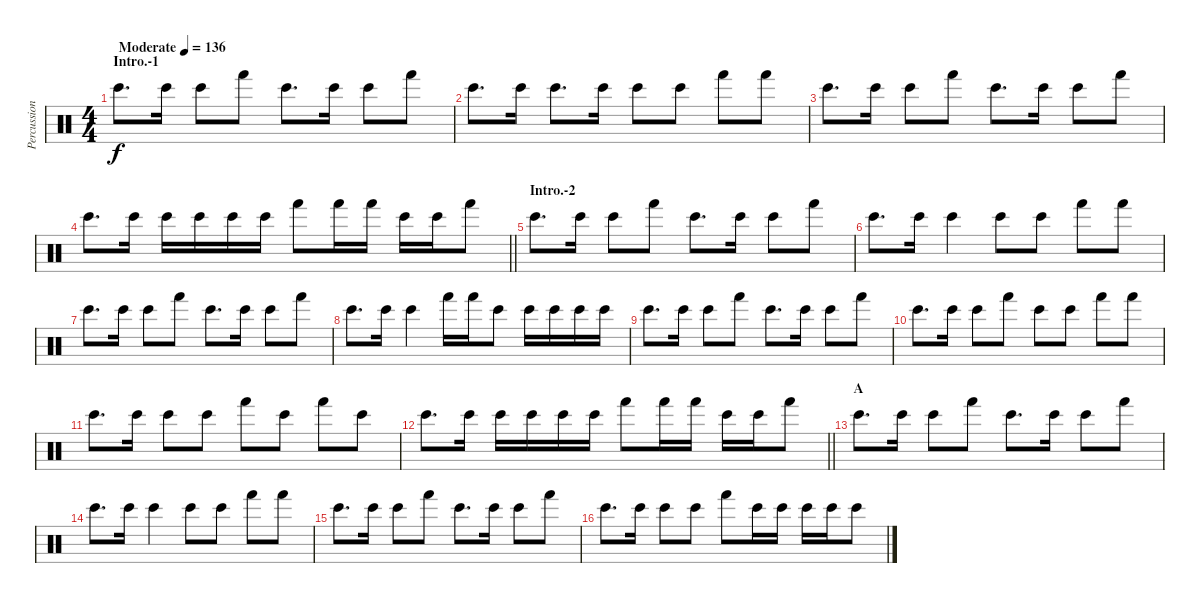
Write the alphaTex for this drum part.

\track ("Percussion" "Percussion") {instrument percussion}
\staff {score}
\articulation defaults
\ts (4 4)
\section ("" "Intro.-1")
\tempo (136 "Moderate")
\clef neutral
\ks c "Bongo High (hit)".8{d dy f} "Bongo High (hit)".16 "Bongo High (hit)".8 "Hand (hit)".8 "Bongo High (hit)".8{d} "Bongo High (hit)".16 "Bongo High (hit)".8 "Hand (hit)".8
|
"Bongo High (hit)".8{d} "Bongo High (hit)".16 "Bongo High (hit)".8{d} "Bongo High (hit)".16 "Bongo High (hit)".8 "Bongo High (hit)".8 "Hand (hit)".8 "Hand (hit)".8 |
"Bongo High (hit)".8{d} "Bongo High (hit)".16 "Bongo High (hit)".8 "Hand (hit)".8 "Bongo High (hit)".8{d} "Bongo High (hit)".16 "Bongo High (hit)".8 "Hand (hit)".8 |
\barLineRight lightlight "Bongo High (hit)".8{d} "Bongo High (hit)".16 "Bongo High (hit)".16 "Bongo High (hit)".16 "Bongo High (hit)".16 "Bongo High (hit)".16 "Hand (hit)".8 "Hand (hit)".16 "Hand (hit)".16 "Bongo High (hit)".16 "Bongo High (hit)".16 "Hand (hit)".8
|
\section ("" "Intro.-2")
"Bongo High (hit)".8{d} "Bongo High (hit)".16 "Bongo High (hit)".8 "Hand (hit)".8 "Bongo High (hit)".8{d} "Bongo High (hit)".16 "Bongo High (hit)".8 "Hand (hit)".8 |
"Bongo High (hit)".8{d} "Bongo High (hit)".16 "Bongo High (hit)".4 "Bongo High (hit)".8 "Bongo High (hit)".8 "Hand (hit)".8 "Hand (hit)".8 |
"Bongo High (hit)".8{d} "Bongo High (hit)".16 "Bongo High (hit)".8 "Hand (hit)".8 "Bongo High (hit)".8{d} "Bongo High (hit)".16 "Bongo High (hit)".8 "Hand (hit)".8 |
"Bongo High (hit)".8{d} "Bongo High (hit)".16 "Bongo High (hit)".4 "Hand (hit)".16 "Hand (hit)".16 "Bongo High (hit)".8 "Bongo High (hit)".16 "Bongo High (hit)".16 "Bongo High (hit)".16 "Bongo High (hit)".16 |
"Bongo High (hit)".8{d} "Bongo High (hit)".16 "Bongo High (hit)".8 "Hand (hit)".8 "Bongo High (hit)".8{d} "Bongo High (hit)".16 "Bongo High (hit)".8 "Hand (hit)".8 |
"Bongo High (hit)".8{d} "Bongo High (hit)".16 "Bongo High (hit)".8 "Hand (hit)".8 "Bongo High (hit)".8 "Bongo High (hit)".8 "Hand (hit)".8 "Hand (hit)".8 |
"Bongo High (hit)".8{d} "Bongo High (hit)".16 "Bongo High (hit)".8 "Bongo High (hit)".8 "Hand (hit)".8 "Bongo High (hit)".8 "Hand (hit)".8 "Bongo High (hit)".8 |
\barLineRight lightlight "Bongo High (hit)".8{d} "Bongo High (hit)".16 "Bongo High (hit)".16 "Bongo High (hit)".16 "Bongo High (hit)".16 "Bongo High (hit)".16 "Hand (hit)".8 "Hand (hit)".16 "Hand (hit)".16 "Bongo High (hit)".16 "Bongo High (hit)".16 "Hand (hit)".8
|
\section ("" "A")
"Bongo High (hit)".8{d} "Bongo High (hit)".16 "Bongo High (hit)".8 "Hand (hit)".8 "Bongo High (hit)".8{d} "Bongo High (hit)".16 "Bongo High (hit)".8 "Hand (hit)".8 |
"Bongo High (hit)".8{d} "Bongo High (hit)".16 "Bongo High (hit)".4 "Bongo High (hit)".8 "Bongo High (hit)".8 "Hand (hit)".8 "Hand (hit)".8 |
"Bongo High (hit)".8{d} "Bongo High (hit)".16 "Bongo High (hit)".8 "Hand (hit)".8 "Bongo High (hit)".8{d} "Bongo High (hit)".16 "Bongo High (hit)".8 "Hand (hit)".8 |
"Bongo High (hit)".8{d} "Bongo High (hit)".16 "Bongo High (hit)".8 "Bongo High (hit)".8 "Hand (hit)".8 "Bongo High (hit)".16 "Bongo High (hit)".16 "Bongo High (hit)".16 "Bongo High (hit)".16 "Bongo High (hit)".8
